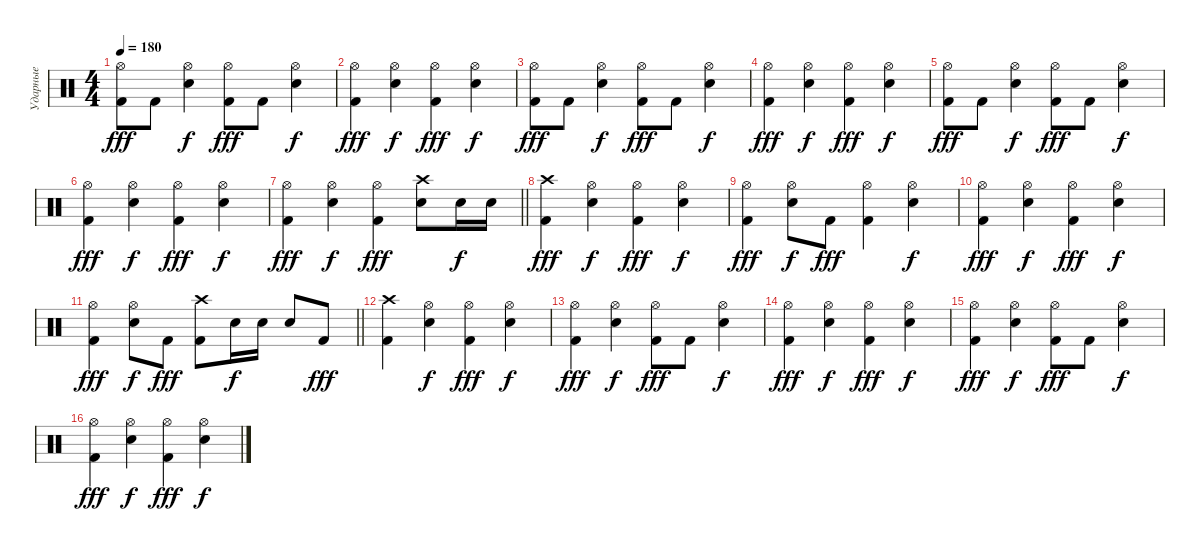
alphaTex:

\track ("Ударные" "Ударные") {instrument percussion}
\staff {score}
\articulation defaults
\ts (4 4)
\tempo 180
\clef neutral
\ks c
("Kick (hit) 2" "Hi-Hat (open)").8{dy fff} "Kick (hit) 2".8 ("Snare (hit) 2" "Hi-Hat (open)").4{dy f} ("Kick (hit) 2" "Hi-Hat (open)").8{dy fff} "Kick (hit) 2".8 ("Snare (hit) 2" "Hi-Hat (open)").4{dy f} |
("Kick (hit) 2" "Hi-Hat (open)").4{dy fff} ("Snare (hit) 2" "Hi-Hat (open)").4{dy f} ("Kick (hit) 2" "Hi-Hat (open)").4{dy fff} ("Snare (hit) 2" "Hi-Hat (open)").4{dy f} |
("Kick (hit) 2" "Hi-Hat (open)").8{dy fff} "Kick (hit) 2".8 ("Snare (hit) 2" "Hi-Hat (open)").4{dy f} ("Kick (hit) 2" "Hi-Hat (open)").8{dy fff} "Kick (hit) 2".8 ("Snare (hit) 2" "Hi-Hat (open)").4{dy f} |
("Kick (hit) 2" "Hi-Hat (open)").4{dy fff} ("Snare (hit) 2" "Hi-Hat (open)").4{dy f} ("Kick (hit) 2" "Hi-Hat (open)").4{dy fff} ("Snare (hit) 2" "Hi-Hat (open)").4{dy f} |
("Kick (hit) 2" "Hi-Hat (open)").8{dy fff} "Kick (hit) 2".8 ("Snare (hit) 2" "Hi-Hat (open)").4{dy f} ("Kick (hit) 2" "Hi-Hat (open)").8{dy fff} "Kick (hit) 2".8 ("Snare (hit) 2" "Hi-Hat (open)").4{dy f} |
("Kick (hit) 2" "Hi-Hat (open)").4{dy fff} ("Snare (hit) 2" "Hi-Hat (open)").4{dy f} ("Kick (hit) 2" "Hi-Hat (open)").4{dy fff} ("Snare (hit) 2" "Hi-Hat (open)").4{dy f} |
\barLineRight lightlight
("Kick (hit) 2" "Hi-Hat (open)").4{dy fff} ("Snare (hit) 2" "Hi-Hat (open)").4{dy f} ("Kick (hit) 2" "Hi-Hat (open)").4{dy fff} ("Snare (hit) 2" "Crash high (hit)").8 "Snare (hit) 2".16{dy f} "Snare (hit) 2".16 |
("Kick (hit) 2" "Crash high (hit)").4{dy fff} ("Snare (hit) 2" "Hi-Hat (open)").4{dy f} ("Kick (hit) 2" "Hi-Hat (open)").4{dy fff} ("Snare (hit) 2" "Hi-Hat (open)").4{dy f} |
("Kick (hit) 2" "Hi-Hat (open)").4{dy fff} ("Snare (hit) 2" "Hi-Hat (open)").8{dy f} "Kick (hit) 2".8{dy fff} ("Kick (hit) 2" "Hi-Hat (open)").4 ("Snare (hit) 2" "Hi-Hat (open)").4{dy f} |
("Kick (hit) 2" "Hi-Hat (open)").4{dy fff} ("Snare (hit) 2" "Hi-Hat (open)").4{dy f} ("Kick (hit) 2" "Hi-Hat (open)").4{dy fff} ("Snare (hit) 2" "Hi-Hat (open)").4{dy f} |
\barLineRight lightlight
("Kick (hit) 2" "Hi-Hat (open)").4{dy fff} ("Snare (hit) 2" "Hi-Hat (open)").8{dy f} "Kick (hit) 2".8{dy fff} ("Kick (hit) 2" "Crash high (hit)").8 "Snare (hit) 2".16{dy f} "Snare (hit) 2".16 "Snare (hit) 2".8 "Kick (hit) 2".8{dy fff} |
("Kick (hit) 2" "Crash high (hit)").4 ("Snare (hit) 2" "Hi-Hat (open)").4{dy f} ("Kick (hit) 2" "Hi-Hat (open)").4{dy fff} ("Snare (hit) 2" "Hi-Hat (open)").4{dy f} |
("Kick (hit) 2" "Hi-Hat (open)").4{dy fff} ("Snare (hit) 2" "Hi-Hat (open)").4{dy f} ("Kick (hit) 2" "Hi-Hat (open)").8{dy fff} "Kick (hit) 2".8 ("Snare (hit) 2" "Hi-Hat (open)").4{dy f} |
("Kick (hit) 2" "Hi-Hat (open)").4{dy fff} ("Snare (hit) 2" "Hi-Hat (open)").4{dy f} ("Kick (hit) 2" "Hi-Hat (open)").4{dy fff} ("Snare (hit) 2" "Hi-Hat (open)").4{dy f} |
("Kick (hit) 2" "Hi-Hat (open)").4{dy fff} ("Snare (hit) 2" "Hi-Hat (open)").4{dy f} ("Kick (hit) 2" "Hi-Hat (open)").8{dy fff} "Kick (hit) 2".8 ("Snare (hit) 2" "Hi-Hat (open)").4{dy f} |
("Kick (hit) 2" "Hi-Hat (open)").4{dy fff} ("Snare (hit) 2" "Hi-Hat (open)").4{dy f} ("Kick (hit) 2" "Hi-Hat (open)").4{dy fff} ("Snare (hit) 2" "Hi-Hat (open)").4{dy f}
